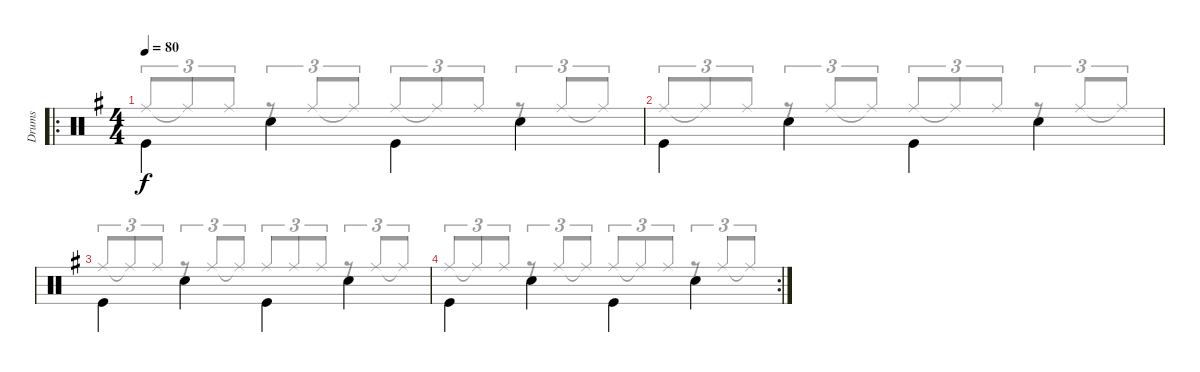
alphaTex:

\track ("Drums" "Drums") {instrument percussion}
\staff {score}
\articulation defaults
\voice
\ro
\ts (4 4)
\tempo 80
\clef neutral
\ks g "Kick (hit)".4{dy f beam Down} "Snare (hit) 2".4{beam Down} "Kick (hit)".4{beam Down} "Snare (hit) 2".4{beam Down}
|
"Kick (hit)".4{beam Down} "Snare (hit) 2".4{beam Down} "Kick (hit)".4{beam Down} "Snare (hit) 2".4{beam Down} |
"Kick (hit)".4{beam Down} "Snare (hit) 2".4{beam Down} "Kick (hit)".4{beam Down} "Snare (hit) 2".4{beam Down} |
\rc 2 "Kick (hit)".4{beam Down} "Snare (hit) 2".4{beam Down} "Kick (hit)".4{beam Down} "Snare (hit) 2".4{beam Down}
\voice
\clef neutral
\ottava regular
\simile none
\ks g "Ride (middle)".8{tu (3 2) dy f beam Up} "Ride (middle)"{t}.8{tu (3 2) beam Up} "Ride (middle)".8{tu (3 2) beam Up}
r.8{tu (3 2) beam Up} "Ride (middle)".8{tu (3 2) beam Up} "Ride (middle)"{t}.8{tu (3 2) beam Up} "Ride (middle)".8{tu (3 2) beam Up} "Ride (middle)"{t}.8{tu (3 2) beam Up} "Ride (middle)".8{tu (3 2) beam Up} r.8{tu (3 2) beam Up} "Ride (middle)".8{tu (3 2) beam Up} "Ride (middle)"{t}.8{tu (3 2) beam Up} |
"Ride (middle)".8{tu (3 2) beam Up} "Ride (middle)"{t}.8{tu (3 2) beam Up} "Ride (middle)".8{tu (3 2) beam Up} r.8{tu (3 2) beam Up} "Ride (middle)".8{tu (3 2) beam Up} "Ride (middle)"{t}.8{tu (3 2) beam Up} "Ride (middle)".8{tu (3 2) beam Up} "Ride (middle)"{t}.8{tu (3 2) beam Up} "Ride (middle)".8{tu (3 2) beam Up} r.8{tu (3 2) beam Up} "Ride (middle)".8{tu (3 2) beam Up} "Ride (middle)"{t}.8{tu (3 2) beam Up} |
"Ride (middle)".8{tu (3 2) beam Up} "Ride (middle)"{t}.8{tu (3 2) beam Up} "Ride (middle)".8{tu (3 2) beam Up} r.8{tu (3 2) beam Up} "Ride (middle)".8{tu (3 2) beam Up} "Ride (middle)"{t}.8{tu (3 2) beam Up} "Ride (middle)".8{tu (3 2) beam Up} "Ride (middle)".8{tu (3 2) beam Up} "Ride (middle)".8{tu (3 2) beam Up} r.8{tu (3 2) beam Up} "Ride (middle)".8{tu (3 2) beam Up} "Ride (middle)"{t}.8{tu (3 2) beam Up} |
"Ride (middle)".8{tu (3 2) beam Up} "Ride (middle)"{t}.8{tu (3 2) beam Up} "Ride (middle)".8{tu (3 2) beam Up} r.8{tu (3 2) beam Up} "Ride (middle)".8{tu (3 2) beam Up} "Ride (middle)"{t}.8{tu (3 2) beam Up} "Ride (middle)".8{tu (3 2) beam Up} "Ride (middle)"{t}.8{tu (3 2) beam Up} "Ride (middle)".8{tu (3 2) beam Up} r.8{tu (3 2) beam Up} "Ride (middle)".8{tu (3 2) beam Up} "Ride (middle)"{t}.8{tu (3 2) beam Up}
